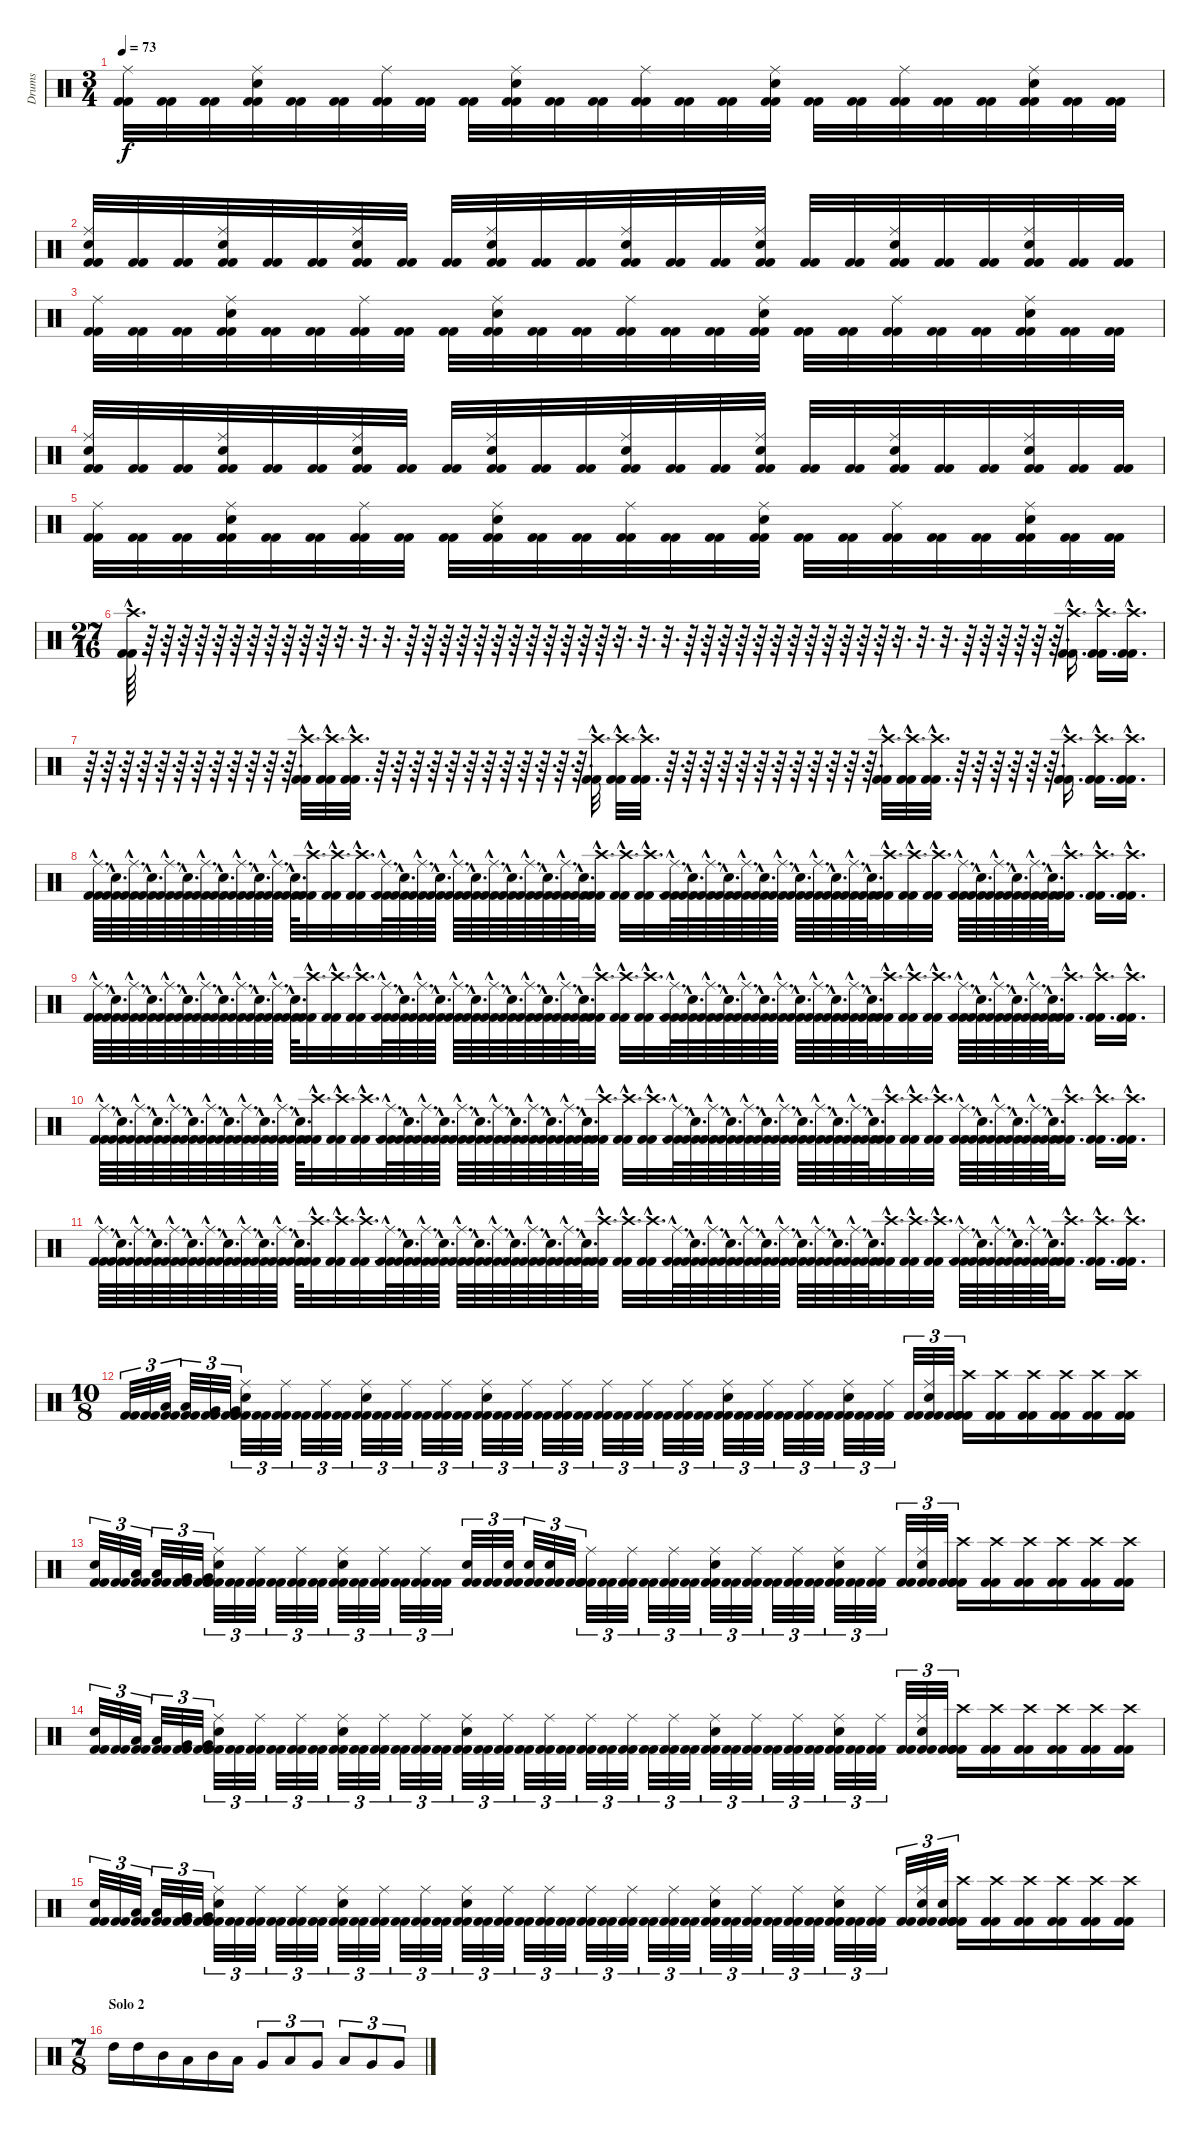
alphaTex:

\track ("Drums" "Drums") {instrument percussion}
\staff {score}
\articulation defaults
\ts (3 4)
\tempo 73
\clef neutral
\ks c
("Kick (hit) 2" "Kick (hit) 2" "Ride (middle)").32{dy f} ("Kick (hit) 2" "Kick (hit) 2").32 ("Kick (hit) 2" "Kick (hit) 2").32 ("Kick (hit) 2" "Kick (hit) 2" "Electric Snare (hit)" "Ride (middle)").32 ("Kick (hit) 2" "Kick (hit) 2").32 ("Kick (hit) 2" "Kick (hit) 2").32 ("Kick (hit) 2" "Kick (hit) 2" "Ride (middle)").32 ("Kick (hit) 2" "Kick (hit) 2").32 ("Kick (hit) 2" "Kick (hit) 2").32 ("Kick (hit) 2" "Kick (hit) 2" "Electric Snare (hit)" "Ride (middle)").32 ("Kick (hit) 2" "Kick (hit) 2").32 ("Kick (hit) 2" "Kick (hit) 2").32 ("Kick (hit) 2" "Kick (hit) 2" "Ride (middle)").32 ("Kick (hit) 2" "Kick (hit) 2").32 ("Kick (hit) 2" "Kick (hit) 2").32 ("Kick (hit) 2" "Kick (hit) 2" "Electric Snare (hit)" "Ride (middle)").32 ("Kick (hit) 2" "Kick (hit) 2").32 ("Kick (hit) 2" "Kick (hit) 2").32 ("Kick (hit) 2" "Kick (hit) 2" "Ride (middle)").32 ("Kick (hit) 2" "Kick (hit) 2").32 ("Kick (hit) 2" "Kick (hit) 2").32 ("Kick (hit) 2" "Kick (hit) 2" "Electric Snare (hit)" "Ride (middle)").32 ("Kick (hit) 2" "Kick (hit) 2").32 ("Kick (hit) 2" "Kick (hit) 2").32 |
("Kick (hit) 2" "Kick (hit) 2" "Electric Snare (hit)" "Ride (middle)").32 ("Kick (hit) 2" "Kick (hit) 2").32 ("Kick (hit) 2" "Kick (hit) 2").32 ("Kick (hit) 2" "Kick (hit) 2" "Electric Snare (hit)" "Ride (middle)").32 ("Kick (hit) 2" "Kick (hit) 2").32 ("Kick (hit) 2" "Kick (hit) 2").32 ("Kick (hit) 2" "Kick (hit) 2" "Electric Snare (hit)" "Ride (middle)").32 ("Kick (hit) 2" "Kick (hit) 2").32 ("Kick (hit) 2" "Kick (hit) 2").32 ("Kick (hit) 2" "Kick (hit) 2" "Electric Snare (hit)" "Ride (middle)").32 ("Kick (hit) 2" "Kick (hit) 2").32 ("Kick (hit) 2" "Kick (hit) 2").32 ("Kick (hit) 2" "Kick (hit) 2" "Electric Snare (hit)" "Ride (middle)").32 ("Kick (hit) 2" "Kick (hit) 2").32 ("Kick (hit) 2" "Kick (hit) 2").32 ("Kick (hit) 2" "Kick (hit) 2" "Electric Snare (hit)" "Ride (middle)").32 ("Kick (hit) 2" "Kick (hit) 2").32 ("Kick (hit) 2" "Kick (hit) 2").32 ("Kick (hit) 2" "Kick (hit) 2" "Electric Snare (hit)" "Ride (middle)").32 ("Kick (hit) 2" "Kick (hit) 2").32 ("Kick (hit) 2" "Kick (hit) 2").32 ("Kick (hit) 2" "Kick (hit) 2" "Electric Snare (hit)" "Ride (middle)").32 ("Kick (hit) 2" "Kick (hit) 2").32 ("Kick (hit) 2" "Kick (hit) 2").32 |
("Kick (hit) 2" "Kick (hit) 2" "Ride (middle)").32 ("Kick (hit) 2" "Kick (hit) 2").32 ("Kick (hit) 2" "Kick (hit) 2").32 ("Kick (hit) 2" "Kick (hit) 2" "Electric Snare (hit)" "Ride (middle)").32 ("Kick (hit) 2" "Kick (hit) 2").32 ("Kick (hit) 2" "Kick (hit) 2").32 ("Kick (hit) 2" "Kick (hit) 2" "Ride (middle)").32 ("Kick (hit) 2" "Kick (hit) 2").32 ("Kick (hit) 2" "Kick (hit) 2").32 ("Kick (hit) 2" "Kick (hit) 2" "Electric Snare (hit)" "Ride (middle)").32 ("Kick (hit) 2" "Kick (hit) 2").32 ("Kick (hit) 2" "Kick (hit) 2").32 ("Kick (hit) 2" "Kick (hit) 2" "Ride (middle)").32 ("Kick (hit) 2" "Kick (hit) 2").32 ("Kick (hit) 2" "Kick (hit) 2").32 ("Kick (hit) 2" "Kick (hit) 2" "Electric Snare (hit)" "Ride (middle)").32 ("Kick (hit) 2" "Kick (hit) 2").32 ("Kick (hit) 2" "Kick (hit) 2").32 ("Kick (hit) 2" "Kick (hit) 2" "Ride (middle)").32 ("Kick (hit) 2" "Kick (hit) 2").32 ("Kick (hit) 2" "Kick (hit) 2").32 ("Kick (hit) 2" "Kick (hit) 2" "Electric Snare (hit)" "Ride (middle)").32 ("Kick (hit) 2" "Kick (hit) 2").32 ("Kick (hit) 2" "Kick (hit) 2").32 |
("Kick (hit) 2" "Kick (hit) 2" "Electric Snare (hit)" "Ride (middle)").32 ("Kick (hit) 2" "Kick (hit) 2").32 ("Kick (hit) 2" "Kick (hit) 2").32 ("Kick (hit) 2" "Kick (hit) 2" "Electric Snare (hit)" "Ride (middle)").32 ("Kick (hit) 2" "Kick (hit) 2").32 ("Kick (hit) 2" "Kick (hit) 2").32 ("Kick (hit) 2" "Kick (hit) 2" "Electric Snare (hit)" "Ride (middle)").32 ("Kick (hit) 2" "Kick (hit) 2").32 ("Kick (hit) 2" "Kick (hit) 2").32 ("Kick (hit) 2" "Kick (hit) 2" "Electric Snare (hit)" "Ride (middle)").32 ("Kick (hit) 2" "Kick (hit) 2").32 ("Kick (hit) 2" "Kick (hit) 2").32 ("Kick (hit) 2" "Kick (hit) 2" "Electric Snare (hit)" "Ride (middle)").32 ("Kick (hit) 2" "Kick (hit) 2").32 ("Kick (hit) 2" "Kick (hit) 2").32 ("Kick (hit) 2" "Kick (hit) 2" "Electric Snare (hit)" "Ride (middle)").32 ("Kick (hit) 2" "Kick (hit) 2").32 ("Kick (hit) 2" "Kick (hit) 2").32 ("Kick (hit) 2" "Kick (hit) 2" "Electric Snare (hit)" "Ride (middle)").32 ("Kick (hit) 2" "Kick (hit) 2").32 ("Kick (hit) 2" "Kick (hit) 2").32 ("Kick (hit) 2" "Kick (hit) 2" "Electric Snare (hit)" "Ride (middle)").32 ("Kick (hit) 2" "Kick (hit) 2").32 ("Kick (hit) 2" "Kick (hit) 2").32 |
("Kick (hit) 2" "Kick (hit) 2" "Ride (middle)").32 ("Kick (hit) 2" "Kick (hit) 2").32 ("Kick (hit) 2" "Kick (hit) 2").32 ("Kick (hit) 2" "Kick (hit) 2" "Electric Snare (hit)" "Ride (middle)").32 ("Kick (hit) 2" "Kick (hit) 2").32 ("Kick (hit) 2" "Kick (hit) 2").32 ("Kick (hit) 2" "Kick (hit) 2" "Ride (middle)").32 ("Kick (hit) 2" "Kick (hit) 2").32 ("Kick (hit) 2" "Kick (hit) 2").32 ("Kick (hit) 2" "Kick (hit) 2" "Electric Snare (hit)" "Ride (middle)").32 ("Kick (hit) 2" "Kick (hit) 2").32 ("Kick (hit) 2" "Kick (hit) 2").32 ("Kick (hit) 2" "Kick (hit) 2" "Ride (middle)").32 ("Kick (hit) 2" "Kick (hit) 2").32 ("Kick (hit) 2" "Kick (hit) 2").32 ("Kick (hit) 2" "Kick (hit) 2" "Electric Snare (hit)" "Ride (middle)").32 ("Kick (hit) 2" "Kick (hit) 2").32 ("Kick (hit) 2" "Kick (hit) 2").32 ("Kick (hit) 2" "Kick (hit) 2" "Ride (middle)").32 ("Kick (hit) 2" "Kick (hit) 2").32 ("Kick (hit) 2" "Kick (hit) 2").32 ("Kick (hit) 2" "Kick (hit) 2" "Electric Snare (hit)" "Ride (middle)").32 ("Kick (hit) 2" "Kick (hit) 2").32 ("Kick (hit) 2" "Kick (hit) 2").32 |
\ts (27 16)
("Kick (hit) 2"{hac} "Kick (hit) 2"{hac} "Crash high (hit)"{hac}).64{d} r.64{d} r.64{d} r.64{d} r.64{d} r.64{d} r.64{d} r.64{d} r.64{d} r.64{d} r.64{d} r.64{d} r.32{d} r.32{d} r.32{d} r.64{d} r.64{d} r.64{d} r.64{d} r.64{d} r.64{d} r.64{d} r.64{d} r.64{d} r.64{d} r.64{d} r.64{d} r.32{d} r.32{d} r.32{d} r.64{d} r.64{d} r.64{d} r.64{d} r.64{d} r.64{d} r.64{d} r.64{d} r.64{d} r.64{d} r.64{d} r.64{d} r.32{d} r.32{d} r.32{d} r.64{d} r.64{d} r.64{d} r.64{d} r.64{d} r.64{d} ("Kick (hit) 2"{hac} "Kick (hit) 2"{hac} "Crash high (hit)"{hac}).16{d} ("Kick (hit) 2"{hac} "Kick (hit) 2"{hac} "Crash high (hit)"{hac}).16{d} ("Kick (hit) 2"{hac} "Kick (hit) 2"{hac} "Crash high (hit)"{hac}).16{d} |
r.64{d} r.64{d} r.64{d} r.64{d} r.64{d} r.64{d} r.64{d} r.64{d} r.64{d} r.64{d} r.64{d} r.64{d} ("Kick (hit) 2"{hac} "Kick (hit) 2"{hac} "Crash high (hit)"{hac}).32{d} ("Kick (hit) 2"{hac} "Kick (hit) 2"{hac} "Crash high (hit)"{hac}).32{d} ("Kick (hit) 2"{hac} "Kick (hit) 2"{hac} "Crash high (hit)"{hac}).32{d} r.64{d} r.64{d} r.64{d} r.64{d} r.64{d} r.64{d} r.64{d} r.64{d} r.64{d} r.64{d} r.64{d} r.64{d} ("Kick (hit) 2"{hac} "Kick (hit) 2"{hac} "Crash high (hit)"{hac}).32{d} ("Kick (hit) 2"{hac} "Kick (hit) 2"{hac} "Crash high (hit)"{hac}).32{d} ("Kick (hit) 2"{hac} "Kick (hit) 2"{hac} "Crash high (hit)"{hac}).32{d} r.64{d} r.64{d} r.64{d} r.64{d} r.64{d} r.64{d} r.64{d} r.64{d} r.64{d} r.64{d} r.64{d} r.64{d} ("Kick (hit) 2"{hac} "Kick (hit) 2"{hac} "Crash high (hit)"{hac}).32{d} ("Kick (hit) 2"{hac} "Kick (hit) 2"{hac} "Crash high (hit)"{hac}).32{d} ("Kick (hit) 2"{hac} "Kick (hit) 2"{hac} "Crash high (hit)"{hac}).32{d} r.64{d} r.64{d} r.64{d} r.64{d} r.64{d} r.64{d} ("Kick (hit) 2"{hac} "Kick (hit) 2"{hac} "Crash high (hit)"{hac}).16{d} ("Kick (hit) 2"{hac} "Kick (hit) 2"{hac} "Crash high (hit)"{hac}).16{d} ("Kick (hit) 2"{hac} "Kick (hit) 2"{hac} "Crash high (hit)"{hac}).16{d} |
("Kick (hit) 2"{hac} "Kick (hit) 2"{hac} "Ride (middle)"{hac}).64{d} ("Kick (hit) 2"{hac} "Kick (hit) 2"{hac} "Electric Snare (hit)"{hac}).64{d} ("Kick (hit) 2"{hac} "Kick (hit) 2"{hac} "Ride (middle)"{hac}).64{d} ("Kick (hit) 2"{hac} "Kick (hit) 2"{hac} "Electric Snare (hit)"{hac}).64{d} ("Kick (hit) 2"{hac} "Kick (hit) 2"{hac} "Ride (middle)"{hac}).64{d} ("Kick (hit) 2"{hac} "Kick (hit) 2"{hac} "Electric Snare (hit)"{hac}).64{d} ("Kick (hit) 2"{hac} "Kick (hit) 2"{hac} "Ride (middle)"{hac}).64{d} ("Kick (hit) 2"{hac} "Kick (hit) 2"{hac} "Electric Snare (hit)"{hac}).64{d} ("Kick (hit) 2"{hac} "Kick (hit) 2"{hac} "Ride (middle)"{hac}).64{d} ("Kick (hit) 2"{hac} "Kick (hit) 2"{hac} "Electric Snare (hit)"{hac}).64{d} ("Kick (hit) 2"{hac} "Kick (hit) 2"{hac} "Ride (middle)"{hac}).64{d} ("Kick (hit) 2"{hac} "Kick (hit) 2"{hac} "Electric Snare (hit)"{hac}).64{d} ("Kick (hit) 2"{hac} "Kick (hit) 2"{hac} "Crash high (hit)"{hac}).32{d} ("Kick (hit) 2"{hac} "Kick (hit) 2"{hac} "Crash high (hit)"{hac}).32{d} ("Kick (hit) 2"{hac} "Kick (hit) 2"{hac} "Crash high (hit)"{hac}).32{d} ("Kick (hit) 2"{hac} "Kick (hit) 2"{hac} "Ride (middle)"{hac}).64{d} ("Kick (hit) 2"{hac} "Kick (hit) 2"{hac} "Electric Snare (hit)"{hac}).64{d} ("Kick (hit) 2"{hac} "Kick (hit) 2"{hac} "Ride (middle)"{hac}).64{d} ("Kick (hit) 2"{hac} "Kick (hit) 2"{hac} "Electric Snare (hit)"{hac}).64{d} ("Kick (hit) 2"{hac} "Kick (hit) 2"{hac} "Ride (middle)"{hac}).64{d} ("Kick (hit) 2"{hac} "Kick (hit) 2"{hac} "Electric Snare (hit)"{hac}).64{d} ("Kick (hit) 2"{hac} "Kick (hit) 2"{hac} "Ride (middle)"{hac}).64{d} ("Kick (hit) 2"{hac} "Kick (hit) 2"{hac} "Electric Snare (hit)"{hac}).64{d} ("Kick (hit) 2"{hac} "Kick (hit) 2"{hac} "Ride (middle)"{hac}).64{d} ("Kick (hit) 2"{hac} "Kick (hit) 2"{hac} "Electric Snare (hit)"{hac}).64{d} ("Kick (hit) 2"{hac} "Kick (hit) 2"{hac} "Ride (middle)"{hac}).64{d} ("Kick (hit) 2"{hac} "Kick (hit) 2"{hac} "Electric Snare (hit)"{hac}).64{d} ("Kick (hit) 2"{hac} "Kick (hit) 2"{hac} "Crash high (hit)"{hac}).32{d} ("Kick (hit) 2"{hac} "Kick (hit) 2"{hac} "Crash high (hit)"{hac}).32{d} ("Kick (hit) 2"{hac} "Kick (hit) 2"{hac} "Crash high (hit)"{hac}).32{d} ("Kick (hit) 2"{hac} "Kick (hit) 2"{hac} "Ride (middle)"{hac}).64{d} ("Kick (hit) 2"{hac} "Kick (hit) 2"{hac} "Electric Snare (hit)"{hac}).64{d} ("Kick (hit) 2"{hac} "Kick (hit) 2"{hac} "Ride (middle)"{hac}).64{d} ("Kick (hit) 2"{hac} "Kick (hit) 2"{hac} "Electric Snare (hit)"{hac}).64{d} ("Kick (hit) 2"{hac} "Kick (hit) 2"{hac} "Ride (middle)"{hac}).64{d} ("Kick (hit) 2"{hac} "Kick (hit) 2"{hac} "Electric Snare (hit)"{hac}).64{d} ("Kick (hit) 2"{hac} "Kick (hit) 2"{hac} "Ride (middle)"{hac}).64{d} ("Kick (hit) 2"{hac} "Kick (hit) 2"{hac} "Electric Snare (hit)"{hac}).64{d} ("Kick (hit) 2"{hac} "Kick (hit) 2"{hac} "Ride (middle)"{hac}).64{d} ("Kick (hit) 2"{hac} "Kick (hit) 2"{hac} "Electric Snare (hit)"{hac}).64{d} ("Kick (hit) 2"{hac} "Kick (hit) 2"{hac} "Ride (middle)"{hac}).64{d} ("Kick (hit) 2"{hac} "Kick (hit) 2"{hac} "Electric Snare (hit)"{hac}).64{d} ("Kick (hit) 2"{hac} "Kick (hit) 2"{hac} "Crash high (hit)"{hac}).32{d} ("Kick (hit) 2"{hac} "Kick (hit) 2"{hac} "Crash high (hit)"{hac}).32{d} ("Kick (hit) 2"{hac} "Kick (hit) 2"{hac} "Crash high (hit)"{hac}).32{d} ("Kick (hit) 2"{hac} "Kick (hit) 2"{hac} "Ride (middle)"{hac}).64{d} ("Kick (hit) 2"{hac} "Kick (hit) 2"{hac} "Electric Snare (hit)"{hac}).64{d} ("Kick (hit) 2"{hac} "Kick (hit) 2"{hac} "Ride (middle)"{hac}).64{d} ("Kick (hit) 2"{hac} "Kick (hit) 2"{hac} "Electric Snare (hit)"{hac}).64{d} ("Kick (hit) 2"{hac} "Kick (hit) 2"{hac} "Ride (middle)"{hac}).64{d} ("Kick (hit) 2"{hac} "Kick (hit) 2"{hac} "Electric Snare (hit)"{hac}).64{d} ("Kick (hit) 2"{hac} "Kick (hit) 2"{hac} "Crash high (hit)"{hac}).16{d} ("Kick (hit) 2"{hac} "Kick (hit) 2"{hac} "Crash high (hit)"{hac}).16{d} ("Kick (hit) 2"{hac} "Kick (hit) 2"{hac} "Crash high (hit)"{hac}).16{d} |
("Kick (hit) 2"{hac} "Kick (hit) 2"{hac} "Ride (middle)"{hac}).64{d} ("Kick (hit) 2"{hac} "Kick (hit) 2"{hac} "Electric Snare (hit)"{hac}).64{d} ("Kick (hit) 2"{hac} "Kick (hit) 2"{hac} "Ride (middle)"{hac}).64{d} ("Kick (hit) 2"{hac} "Kick (hit) 2"{hac} "Electric Snare (hit)"{hac}).64{d} ("Kick (hit) 2"{hac} "Kick (hit) 2"{hac} "Ride (middle)"{hac}).64{d} ("Kick (hit) 2"{hac} "Kick (hit) 2"{hac} "Electric Snare (hit)"{hac}).64{d} ("Kick (hit) 2"{hac} "Kick (hit) 2"{hac} "Ride (middle)"{hac}).64{d} ("Kick (hit) 2"{hac} "Kick (hit) 2"{hac} "Electric Snare (hit)"{hac}).64{d} ("Kick (hit) 2"{hac} "Kick (hit) 2"{hac} "Ride (middle)"{hac}).64{d} ("Kick (hit) 2"{hac} "Kick (hit) 2"{hac} "Electric Snare (hit)"{hac}).64{d} ("Kick (hit) 2"{hac} "Kick (hit) 2"{hac} "Ride (middle)"{hac}).64{d} ("Kick (hit) 2"{hac} "Kick (hit) 2"{hac} "Electric Snare (hit)"{hac}).64{d} ("Kick (hit) 2"{hac} "Kick (hit) 2"{hac} "Crash high (hit)"{hac}).32{d} ("Kick (hit) 2"{hac} "Kick (hit) 2"{hac} "Crash high (hit)"{hac}).32{d} ("Kick (hit) 2"{hac} "Kick (hit) 2"{hac} "Crash high (hit)"{hac}).32{d} ("Kick (hit) 2"{hac} "Kick (hit) 2"{hac} "Ride (middle)"{hac}).64{d} ("Kick (hit) 2"{hac} "Kick (hit) 2"{hac} "Electric Snare (hit)"{hac}).64{d} ("Kick (hit) 2"{hac} "Kick (hit) 2"{hac} "Ride (middle)"{hac}).64{d} ("Kick (hit) 2"{hac} "Kick (hit) 2"{hac} "Electric Snare (hit)"{hac}).64{d} ("Kick (hit) 2"{hac} "Kick (hit) 2"{hac} "Ride (middle)"{hac}).64{d} ("Kick (hit) 2"{hac} "Kick (hit) 2"{hac} "Electric Snare (hit)"{hac}).64{d} ("Kick (hit) 2"{hac} "Kick (hit) 2"{hac} "Ride (middle)"{hac}).64{d} ("Kick (hit) 2"{hac} "Kick (hit) 2"{hac} "Electric Snare (hit)"{hac}).64{d} ("Kick (hit) 2"{hac} "Kick (hit) 2"{hac} "Ride (middle)"{hac}).64{d} ("Kick (hit) 2"{hac} "Kick (hit) 2"{hac} "Electric Snare (hit)"{hac}).64{d} ("Kick (hit) 2"{hac} "Kick (hit) 2"{hac} "Ride (middle)"{hac}).64{d} ("Kick (hit) 2"{hac} "Kick (hit) 2"{hac} "Electric Snare (hit)"{hac}).64{d} ("Kick (hit) 2"{hac} "Kick (hit) 2"{hac} "Crash high (hit)"{hac}).32{d} ("Kick (hit) 2"{hac} "Kick (hit) 2"{hac} "Crash high (hit)"{hac}).32{d} ("Kick (hit) 2"{hac} "Kick (hit) 2"{hac} "Crash high (hit)"{hac}).32{d} ("Kick (hit) 2"{hac} "Kick (hit) 2"{hac} "Ride (middle)"{hac}).64{d} ("Kick (hit) 2"{hac} "Kick (hit) 2"{hac} "Electric Snare (hit)"{hac}).64{d} ("Kick (hit) 2"{hac} "Kick (hit) 2"{hac} "Ride (middle)"{hac}).64{d} ("Kick (hit) 2"{hac} "Kick (hit) 2"{hac} "Electric Snare (hit)"{hac}).64{d} ("Kick (hit) 2"{hac} "Kick (hit) 2"{hac} "Ride (middle)"{hac}).64{d} ("Kick (hit) 2"{hac} "Kick (hit) 2"{hac} "Electric Snare (hit)"{hac}).64{d} ("Kick (hit) 2"{hac} "Kick (hit) 2"{hac} "Ride (middle)"{hac}).64{d} ("Kick (hit) 2"{hac} "Kick (hit) 2"{hac} "Electric Snare (hit)"{hac}).64{d} ("Kick (hit) 2"{hac} "Kick (hit) 2"{hac} "Ride (middle)"{hac}).64{d} ("Kick (hit) 2"{hac} "Kick (hit) 2"{hac} "Electric Snare (hit)"{hac}).64{d} ("Kick (hit) 2"{hac} "Kick (hit) 2"{hac} "Ride (middle)"{hac}).64{d} ("Kick (hit) 2"{hac} "Kick (hit) 2"{hac} "Electric Snare (hit)"{hac}).64{d} ("Kick (hit) 2"{hac} "Kick (hit) 2"{hac} "Crash high (hit)"{hac}).32{d} ("Kick (hit) 2"{hac} "Kick (hit) 2"{hac} "Crash high (hit)"{hac}).32{d} ("Kick (hit) 2"{hac} "Kick (hit) 2"{hac} "Crash high (hit)"{hac}).32{d} ("Kick (hit) 2"{hac} "Kick (hit) 2"{hac} "Ride (middle)"{hac}).64{d} ("Kick (hit) 2"{hac} "Kick (hit) 2"{hac} "Electric Snare (hit)"{hac}).64{d} ("Kick (hit) 2"{hac} "Kick (hit) 2"{hac} "Ride (middle)"{hac}).64{d} ("Kick (hit) 2"{hac} "Kick (hit) 2"{hac} "Electric Snare (hit)"{hac}).64{d} ("Kick (hit) 2"{hac} "Kick (hit) 2"{hac} "Ride (middle)"{hac}).64{d} ("Kick (hit) 2"{hac} "Kick (hit) 2"{hac} "Electric Snare (hit)"{hac}).64{d} ("Kick (hit) 2"{hac} "Kick (hit) 2"{hac} "Crash high (hit)"{hac}).16{d} ("Kick (hit) 2"{hac} "Kick (hit) 2"{hac} "Crash high (hit)"{hac}).16{d} ("Kick (hit) 2"{hac} "Kick (hit) 2"{hac} "Crash high (hit)"{hac}).16{d} |
("Kick (hit) 2"{hac} "Kick (hit) 2"{hac} "Ride (middle)"{hac}).64{d} ("Kick (hit) 2"{hac} "Kick (hit) 2"{hac} "Electric Snare (hit)"{hac}).64{d} ("Kick (hit) 2"{hac} "Kick (hit) 2"{hac} "Ride (middle)"{hac}).64{d} ("Kick (hit) 2"{hac} "Kick (hit) 2"{hac} "Electric Snare (hit)"{hac}).64{d} ("Kick (hit) 2"{hac} "Kick (hit) 2"{hac} "Ride (middle)"{hac}).64{d} ("Kick (hit) 2"{hac} "Kick (hit) 2"{hac} "Electric Snare (hit)"{hac}).64{d} ("Kick (hit) 2"{hac} "Kick (hit) 2"{hac} "Ride (middle)"{hac}).64{d} ("Kick (hit) 2"{hac} "Kick (hit) 2"{hac} "Electric Snare (hit)"{hac}).64{d} ("Kick (hit) 2"{hac} "Kick (hit) 2"{hac} "Ride (middle)"{hac}).64{d} ("Kick (hit) 2"{hac} "Kick (hit) 2"{hac} "Electric Snare (hit)"{hac}).64{d} ("Kick (hit) 2"{hac} "Kick (hit) 2"{hac} "Ride (middle)"{hac}).64{d} ("Kick (hit) 2"{hac} "Kick (hit) 2"{hac} "Electric Snare (hit)"{hac}).64{d} ("Kick (hit) 2"{hac} "Kick (hit) 2"{hac} "Crash high (hit)"{hac}).32{d} ("Kick (hit) 2"{hac} "Kick (hit) 2"{hac} "Crash high (hit)"{hac}).32{d} ("Kick (hit) 2"{hac} "Kick (hit) 2"{hac} "Crash high (hit)"{hac}).32{d} ("Kick (hit) 2"{hac} "Kick (hit) 2"{hac} "Ride (middle)"{hac}).64{d} ("Kick (hit) 2"{hac} "Kick (hit) 2"{hac} "Electric Snare (hit)"{hac}).64{d} ("Kick (hit) 2"{hac} "Kick (hit) 2"{hac} "Ride (middle)"{hac}).64{d} ("Kick (hit) 2"{hac} "Kick (hit) 2"{hac} "Electric Snare (hit)"{hac}).64{d} ("Kick (hit) 2"{hac} "Kick (hit) 2"{hac} "Ride (middle)"{hac}).64{d} ("Kick (hit) 2"{hac} "Kick (hit) 2"{hac} "Electric Snare (hit)"{hac}).64{d} ("Kick (hit) 2"{hac} "Kick (hit) 2"{hac} "Ride (middle)"{hac}).64{d} ("Kick (hit) 2"{hac} "Kick (hit) 2"{hac} "Electric Snare (hit)"{hac}).64{d} ("Kick (hit) 2"{hac} "Kick (hit) 2"{hac} "Ride (middle)"{hac}).64{d} ("Kick (hit) 2"{hac} "Kick (hit) 2"{hac} "Electric Snare (hit)"{hac}).64{d} ("Kick (hit) 2"{hac} "Kick (hit) 2"{hac} "Ride (middle)"{hac}).64{d} ("Kick (hit) 2"{hac} "Kick (hit) 2"{hac} "Electric Snare (hit)"{hac}).64{d} ("Kick (hit) 2"{hac} "Kick (hit) 2"{hac} "Crash high (hit)"{hac}).32{d} ("Kick (hit) 2"{hac} "Kick (hit) 2"{hac} "Crash high (hit)"{hac}).32{d} ("Kick (hit) 2"{hac} "Kick (hit) 2"{hac} "Crash high (hit)"{hac}).32{d} ("Kick (hit) 2"{hac} "Kick (hit) 2"{hac} "Ride (middle)"{hac}).64{d} ("Kick (hit) 2"{hac} "Kick (hit) 2"{hac} "Electric Snare (hit)"{hac}).64{d} ("Kick (hit) 2"{hac} "Kick (hit) 2"{hac} "Ride (middle)"{hac}).64{d} ("Kick (hit) 2"{hac} "Kick (hit) 2"{hac} "Electric Snare (hit)"{hac}).64{d} ("Kick (hit) 2"{hac} "Kick (hit) 2"{hac} "Ride (middle)"{hac}).64{d} ("Kick (hit) 2"{hac} "Kick (hit) 2"{hac} "Electric Snare (hit)"{hac}).64{d} ("Kick (hit) 2"{hac} "Kick (hit) 2"{hac} "Ride (middle)"{hac}).64{d} ("Kick (hit) 2"{hac} "Kick (hit) 2"{hac} "Electric Snare (hit)"{hac}).64{d} ("Kick (hit) 2"{hac} "Kick (hit) 2"{hac} "Ride (middle)"{hac}).64{d} ("Kick (hit) 2"{hac} "Kick (hit) 2"{hac} "Electric Snare (hit)"{hac}).64{d} ("Kick (hit) 2"{hac} "Kick (hit) 2"{hac} "Ride (middle)"{hac}).64{d} ("Kick (hit) 2"{hac} "Kick (hit) 2"{hac} "Electric Snare (hit)"{hac}).64{d} ("Kick (hit) 2"{hac} "Kick (hit) 2"{hac} "Crash high (hit)"{hac}).32{d} ("Kick (hit) 2"{hac} "Kick (hit) 2"{hac} "Crash high (hit)"{hac}).32{d} ("Kick (hit) 2"{hac} "Kick (hit) 2"{hac} "Crash high (hit)"{hac}).32{d} ("Kick (hit) 2"{hac} "Kick (hit) 2"{hac} "Ride (middle)"{hac}).64{d} ("Kick (hit) 2"{hac} "Kick (hit) 2"{hac} "Electric Snare (hit)"{hac}).64{d} ("Kick (hit) 2"{hac} "Kick (hit) 2"{hac} "Ride (middle)"{hac}).64{d} ("Kick (hit) 2"{hac} "Kick (hit) 2"{hac} "Electric Snare (hit)"{hac}).64{d} ("Kick (hit) 2"{hac} "Kick (hit) 2"{hac} "Ride (middle)"{hac}).64{d} ("Kick (hit) 2"{hac} "Kick (hit) 2"{hac} "Electric Snare (hit)"{hac}).64{d} ("Kick (hit) 2"{hac} "Kick (hit) 2"{hac} "Crash high (hit)"{hac}).16{d} ("Kick (hit) 2"{hac} "Kick (hit) 2"{hac} "Crash high (hit)"{hac}).16{d} ("Kick (hit) 2"{hac} "Kick (hit) 2"{hac} "Crash high (hit)"{hac}).16{d} |
("Kick (hit) 2"{hac} "Kick (hit) 2"{hac} "Ride (middle)"{hac}).64{d} ("Kick (hit) 2"{hac} "Kick (hit) 2"{hac} "Electric Snare (hit)"{hac}).64{d} ("Kick (hit) 2"{hac} "Kick (hit) 2"{hac} "Ride (middle)"{hac}).64{d} ("Kick (hit) 2"{hac} "Kick (hit) 2"{hac} "Electric Snare (hit)"{hac}).64{d} ("Kick (hit) 2"{hac} "Kick (hit) 2"{hac} "Ride (middle)"{hac}).64{d} ("Kick (hit) 2"{hac} "Kick (hit) 2"{hac} "Electric Snare (hit)"{hac}).64{d} ("Kick (hit) 2"{hac} "Kick (hit) 2"{hac} "Ride (middle)"{hac}).64{d} ("Kick (hit) 2"{hac} "Kick (hit) 2"{hac} "Electric Snare (hit)"{hac}).64{d} ("Kick (hit) 2"{hac} "Kick (hit) 2"{hac} "Ride (middle)"{hac}).64{d} ("Kick (hit) 2"{hac} "Kick (hit) 2"{hac} "Electric Snare (hit)"{hac}).64{d} ("Kick (hit) 2"{hac} "Kick (hit) 2"{hac} "Ride (middle)"{hac}).64{d} ("Kick (hit) 2"{hac} "Kick (hit) 2"{hac} "Electric Snare (hit)"{hac}).64{d} ("Kick (hit) 2"{hac} "Kick (hit) 2"{hac} "Crash high (hit)"{hac}).32{d} ("Kick (hit) 2"{hac} "Kick (hit) 2"{hac} "Crash high (hit)"{hac}).32{d} ("Kick (hit) 2"{hac} "Kick (hit) 2"{hac} "Crash high (hit)"{hac}).32{d} ("Kick (hit) 2"{hac} "Kick (hit) 2"{hac} "Ride (middle)"{hac}).64{d} ("Kick (hit) 2"{hac} "Kick (hit) 2"{hac} "Electric Snare (hit)"{hac}).64{d} ("Kick (hit) 2"{hac} "Kick (hit) 2"{hac} "Ride (middle)"{hac}).64{d} ("Kick (hit) 2"{hac} "Kick (hit) 2"{hac} "Electric Snare (hit)"{hac}).64{d} ("Kick (hit) 2"{hac} "Kick (hit) 2"{hac} "Ride (middle)"{hac}).64{d} ("Kick (hit) 2"{hac} "Kick (hit) 2"{hac} "Electric Snare (hit)"{hac}).64{d} ("Kick (hit) 2"{hac} "Kick (hit) 2"{hac} "Ride (middle)"{hac}).64{d} ("Kick (hit) 2"{hac} "Kick (hit) 2"{hac} "Electric Snare (hit)"{hac}).64{d} ("Kick (hit) 2"{hac} "Kick (hit) 2"{hac} "Ride (middle)"{hac}).64{d} ("Kick (hit) 2"{hac} "Kick (hit) 2"{hac} "Electric Snare (hit)"{hac}).64{d} ("Kick (hit) 2"{hac} "Kick (hit) 2"{hac} "Ride (middle)"{hac}).64{d} ("Kick (hit) 2"{hac} "Kick (hit) 2"{hac} "Electric Snare (hit)"{hac}).64{d} ("Kick (hit) 2"{hac} "Kick (hit) 2"{hac} "Crash high (hit)"{hac}).32{d} ("Kick (hit) 2"{hac} "Kick (hit) 2"{hac} "Crash high (hit)"{hac}).32{d} ("Kick (hit) 2"{hac} "Kick (hit) 2"{hac} "Crash high (hit)"{hac}).32{d} ("Kick (hit) 2"{hac} "Kick (hit) 2"{hac} "Ride (middle)"{hac}).64{d} ("Kick (hit) 2"{hac} "Kick (hit) 2"{hac} "Electric Snare (hit)"{hac}).64{d} ("Kick (hit) 2"{hac} "Kick (hit) 2"{hac} "Ride (middle)"{hac}).64{d} ("Kick (hit) 2"{hac} "Kick (hit) 2"{hac} "Electric Snare (hit)"{hac}).64{d} ("Kick (hit) 2"{hac} "Kick (hit) 2"{hac} "Ride (middle)"{hac}).64{d} ("Kick (hit) 2"{hac} "Kick (hit) 2"{hac} "Electric Snare (hit)"{hac}).64{d} ("Kick (hit) 2"{hac} "Kick (hit) 2"{hac} "Ride (middle)"{hac}).64{d} ("Kick (hit) 2"{hac} "Kick (hit) 2"{hac} "Electric Snare (hit)"{hac}).64{d} ("Kick (hit) 2"{hac} "Kick (hit) 2"{hac} "Ride (middle)"{hac}).64{d} ("Kick (hit) 2"{hac} "Kick (hit) 2"{hac} "Electric Snare (hit)"{hac}).64{d} ("Kick (hit) 2"{hac} "Kick (hit) 2"{hac} "Ride (middle)"{hac}).64{d} ("Kick (hit) 2"{hac} "Kick (hit) 2"{hac} "Electric Snare (hit)"{hac}).64{d} ("Kick (hit) 2"{hac} "Kick (hit) 2"{hac} "Crash high (hit)"{hac}).32{d} ("Kick (hit) 2"{hac} "Kick (hit) 2"{hac} "Crash high (hit)"{hac}).32{d} ("Kick (hit) 2"{hac} "Kick (hit) 2"{hac} "Crash high (hit)"{hac}).32{d} ("Kick (hit) 2"{hac} "Kick (hit) 2"{hac} "Ride (middle)"{hac}).64{d} ("Kick (hit) 2"{hac} "Kick (hit) 2"{hac} "Electric Snare (hit)"{hac}).64{d} ("Kick (hit) 2"{hac} "Kick (hit) 2"{hac} "Ride (middle)"{hac}).64{d} ("Kick (hit) 2"{hac} "Kick (hit) 2"{hac} "Electric Snare (hit)"{hac}).64{d} ("Kick (hit) 2"{hac} "Kick (hit) 2"{hac} "Ride (middle)"{hac}).64{d} ("Kick (hit) 2"{hac} "Kick (hit) 2"{hac} "Electric Snare (hit)"{hac}).64{d} ("Kick (hit) 2"{hac} "Kick (hit) 2"{hac} "Crash high (hit)"{hac}).16{d} ("Kick (hit) 2"{hac} "Kick (hit) 2"{hac} "Crash high (hit)"{hac}).16{d} ("Kick (hit) 2"{hac} "Kick (hit) 2"{hac} "Crash high (hit)"{hac}).16{d} |
\ts (10 8)
("Kick (hit) 2" "Kick (hit) 2").32{tu (3 2)} ("Kick (hit) 2" "Kick (hit) 2").32{tu (3 2)} ("Kick (hit) 2" "Kick (hit) 2" "Low Tom (hit)").32{tu (3 2)} ("Kick (hit) 2" "Kick (hit) 2" "Low Tom (hit)").32{tu (3 2)} ("Kick (hit) 2" "Kick (hit) 2" "Very Low Tom (hit)").32{tu (3 2)} ("Kick (hit) 2" "Kick (hit) 2" "Very Low Tom (hit)").32{tu (3 2)} ("Kick (hit) 2" "Kick (hit) 2" "Electric Snare (hit)" "Ride (middle)").32{tu (3 2)} ("Kick (hit) 2" "Kick (hit) 2").32{tu (3 2)} ("Kick (hit) 2" "Kick (hit) 2" "Ride (middle)").32{tu (3 2)} ("Kick (hit) 2" "Kick (hit) 2").32{tu (3 2)} ("Kick (hit) 2" "Kick (hit) 2" "Ride (middle)").32{tu (3 2)} ("Kick (hit) 2" "Kick (hit) 2").32{tu (3 2)} ("Kick (hit) 2" "Kick (hit) 2" "Electric Snare (hit)" "Ride (middle)").32{tu (3 2)} ("Kick (hit) 2" "Kick (hit) 2").32{tu (3 2)} ("Kick (hit) 2" "Kick (hit) 2" "Ride (middle)").32{tu (3 2)} ("Kick (hit) 2" "Kick (hit) 2").32{tu (3 2)} ("Kick (hit) 2" "Kick (hit) 2" "Ride (middle)").32{tu (3 2)} ("Kick (hit) 2" "Kick (hit) 2").32{tu (3 2)} ("Kick (hit) 2" "Kick (hit) 2" "Electric Snare (hit)" "Ride (middle)").32{tu (3 2)} ("Kick (hit) 2" "Kick (hit) 2").32{tu (3 2)} ("Kick (hit) 2" "Kick (hit) 2" "Ride (middle)").32{tu (3 2)} ("Kick (hit) 2" "Kick (hit) 2").32{tu (3 2)} ("Kick (hit) 2" "Kick (hit) 2" "Ride (middle)").32{tu (3 2)} ("Kick (hit) 2" "Kick (hit) 2").32{tu (3 2)} ("Kick (hit) 2" "Kick (hit) 2" "Ride (middle)").32{tu (3 2)} ("Kick (hit) 2" "Kick (hit) 2").32{tu (3 2)} ("Kick (hit) 2" "Kick (hit) 2" "Ride (middle)").32{tu (3 2)} ("Kick (hit) 2" "Kick (hit) 2").32{tu (3 2)} ("Kick (hit) 2" "Kick (hit) 2" "Ride (middle)").32{tu (3 2)} ("Kick (hit) 2" "Kick (hit) 2").32{tu (3 2)} ("Kick (hit) 2" "Kick (hit) 2" "Electric Snare (hit)" "Ride (middle)").32{tu (3 2)} ("Kick (hit) 2" "Kick (hit) 2").32{tu (3 2)} ("Kick (hit) 2" "Kick (hit) 2" "Ride (middle)").32{tu (3 2)} ("Kick (hit) 2" "Kick (hit) 2").32{tu (3 2)} ("Kick (hit) 2" "Kick (hit) 2" "Ride (middle)").32{tu (3 2)} ("Kick (hit) 2" "Kick (hit) 2").32{tu (3 2)} ("Kick (hit) 2" "Kick (hit) 2" "Electric Snare (hit)" "Ride (middle)").32{tu (3 2)} ("Kick (hit) 2" "Kick (hit) 2").32{tu (3 2)} ("Kick (hit) 2" "Kick (hit) 2" "Ride (middle)").32{tu (3 2)} ("Kick (hit) 2" "Kick (hit) 2").32{tu (3 2)} ("Kick (hit) 2" "Kick (hit) 2" "Electric Snare (hit)" "Ride (middle)").32{tu (3 2)} ("Kick (hit) 2" "Kick (hit) 2").32{tu (3 2)} ("Kick (hit) 2" "Kick (hit) 2" "Crash high (hit)").16 ("Kick (hit) 2" "Kick (hit) 2" "Crash high (hit)").16 ("Kick (hit) 2" "Kick (hit) 2" "Crash high (hit)").16 ("Kick (hit) 2" "Kick (hit) 2" "Crash high (hit)").16 ("Kick (hit) 2" "Kick (hit) 2" "Crash high (hit)").16 ("Kick (hit) 2" "Kick (hit) 2" "Crash high (hit)").16 |
("Kick (hit) 2" "Kick (hit) 2" "Electric Snare (hit)").32{tu (3 2)} ("Kick (hit) 2" "Kick (hit) 2").32{tu (3 2)} ("Kick (hit) 2" "Kick (hit) 2" "Low Tom (hit)").32{tu (3 2)} ("Kick (hit) 2" "Kick (hit) 2" "Low Tom (hit)").32{tu (3 2)} ("Kick (hit) 2" "Kick (hit) 2" "Very Low Tom (hit)").32{tu (3 2)} ("Kick (hit) 2" "Kick (hit) 2" "Very Low Tom (hit)").32{tu (3 2)} ("Kick (hit) 2" "Kick (hit) 2" "Electric Snare (hit)" "Ride (middle)").32{tu (3 2)} ("Kick (hit) 2" "Kick (hit) 2").32{tu (3 2)} ("Kick (hit) 2" "Kick (hit) 2" "Ride (middle)").32{tu (3 2)} ("Kick (hit) 2" "Kick (hit) 2").32{tu (3 2)} ("Kick (hit) 2" "Kick (hit) 2" "Ride (middle)").32{tu (3 2)} ("Kick (hit) 2" "Kick (hit) 2").32{tu (3 2)} ("Kick (hit) 2" "Kick (hit) 2" "Electric Snare (hit)" "Ride (middle)").32{tu (3 2)} ("Kick (hit) 2" "Kick (hit) 2").32{tu (3 2)} ("Kick (hit) 2" "Kick (hit) 2" "Ride (middle)").32{tu (3 2)} ("Kick (hit) 2" "Kick (hit) 2").32{tu (3 2)} ("Kick (hit) 2" "Kick (hit) 2" "Ride (middle)").32{tu (3 2)} ("Kick (hit) 2" "Kick (hit) 2").32{tu (3 2)} ("Kick (hit) 2" "Kick (hit) 2" "Electric Snare (hit)").32{tu (3 2)} ("Kick (hit) 2" "Kick (hit) 2").32{tu (3 2)} ("Kick (hit) 2" "Kick (hit) 2" "Electric Snare (hit)").32{tu (3 2)} ("Kick (hit) 2" "Kick (hit) 2" "Electric Snare (hit)").32{tu (3 2)} ("Kick (hit) 2" "Kick (hit) 2" "Electric Snare (hit)").32{tu (3 2)} ("Kick (hit) 2" "Kick (hit) 2").32{tu (3 2)} ("Kick (hit) 2" "Kick (hit) 2" "Ride (middle)").32{tu (3 2)} ("Kick (hit) 2" "Kick (hit) 2").32{tu (3 2)} ("Kick (hit) 2" "Kick (hit) 2" "Ride (middle)").32{tu (3 2)} ("Kick (hit) 2" "Kick (hit) 2").32{tu (3 2)} ("Kick (hit) 2" "Kick (hit) 2" "Ride (middle)").32{tu (3 2)} ("Kick (hit) 2" "Kick (hit) 2").32{tu (3 2)} ("Kick (hit) 2" "Kick (hit) 2" "Electric Snare (hit)" "Ride (middle)").32{tu (3 2)} ("Kick (hit) 2" "Kick (hit) 2").32{tu (3 2)} ("Kick (hit) 2" "Kick (hit) 2" "Ride (middle)").32{tu (3 2)} ("Kick (hit) 2" "Kick (hit) 2").32{tu (3 2)} ("Kick (hit) 2" "Kick (hit) 2" "Ride (middle)").32{tu (3 2)} ("Kick (hit) 2" "Kick (hit) 2").32{tu (3 2)} ("Kick (hit) 2" "Kick (hit) 2" "Electric Snare (hit)" "Ride (middle)").32{tu (3 2)} ("Kick (hit) 2" "Kick (hit) 2").32{tu (3 2)} ("Kick (hit) 2" "Kick (hit) 2" "Ride (middle)").32{tu (3 2)} ("Kick (hit) 2" "Kick (hit) 2").32{tu (3 2)} ("Kick (hit) 2" "Kick (hit) 2" "Electric Snare (hit)" "Ride (middle)").32{tu (3 2)} ("Kick (hit) 2" "Kick (hit) 2").32{tu (3 2)} ("Kick (hit) 2" "Kick (hit) 2" "Crash high (hit)").16 ("Kick (hit) 2" "Kick (hit) 2" "Crash high (hit)").16 ("Kick (hit) 2" "Kick (hit) 2" "Crash high (hit)").16 ("Kick (hit) 2" "Kick (hit) 2" "Crash high (hit)").16 ("Kick (hit) 2" "Kick (hit) 2" "Crash high (hit)").16 ("Kick (hit) 2" "Kick (hit) 2" "Crash high (hit)").16 |
("Kick (hit) 2" "Kick (hit) 2" "Electric Snare (hit)").32{tu (3 2)} ("Kick (hit) 2" "Kick (hit) 2").32{tu (3 2)} ("Kick (hit) 2" "Kick (hit) 2" "Low Tom (hit)").32{tu (3 2)} ("Kick (hit) 2" "Kick (hit) 2" "Low Tom (hit)").32{tu (3 2)} ("Kick (hit) 2" "Kick (hit) 2" "Very Low Tom (hit)").32{tu (3 2)} ("Kick (hit) 2" "Kick (hit) 2" "Very Low Tom (hit)").32{tu (3 2)} ("Kick (hit) 2" "Kick (hit) 2" "Electric Snare (hit)" "Ride (middle)").32{tu (3 2)} ("Kick (hit) 2" "Kick (hit) 2").32{tu (3 2)} ("Kick (hit) 2" "Kick (hit) 2" "Ride (middle)").32{tu (3 2)} ("Kick (hit) 2" "Kick (hit) 2").32{tu (3 2)} ("Kick (hit) 2" "Kick (hit) 2" "Ride (middle)").32{tu (3 2)} ("Kick (hit) 2" "Kick (hit) 2").32{tu (3 2)} ("Kick (hit) 2" "Kick (hit) 2" "Electric Snare (hit)" "Ride (middle)").32{tu (3 2)} ("Kick (hit) 2" "Kick (hit) 2").32{tu (3 2)} ("Kick (hit) 2" "Kick (hit) 2" "Ride (middle)").32{tu (3 2)} ("Kick (hit) 2" "Kick (hit) 2").32{tu (3 2)} ("Kick (hit) 2" "Kick (hit) 2" "Ride (middle)").32{tu (3 2)} ("Kick (hit) 2" "Kick (hit) 2").32{tu (3 2)} ("Kick (hit) 2" "Kick (hit) 2" "Electric Snare (hit)" "Ride (middle)").32{tu (3 2)} ("Kick (hit) 2" "Kick (hit) 2").32{tu (3 2)} ("Kick (hit) 2" "Kick (hit) 2" "Ride (middle)").32{tu (3 2)} ("Kick (hit) 2" "Kick (hit) 2").32{tu (3 2)} ("Kick (hit) 2" "Kick (hit) 2" "Ride (middle)").32{tu (3 2)} ("Kick (hit) 2" "Kick (hit) 2").32{tu (3 2)} ("Kick (hit) 2" "Kick (hit) 2" "Ride (middle)").32{tu (3 2)} ("Kick (hit) 2" "Kick (hit) 2").32{tu (3 2)} ("Kick (hit) 2" "Kick (hit) 2" "Ride (middle)").32{tu (3 2)} ("Kick (hit) 2" "Kick (hit) 2").32{tu (3 2)} ("Kick (hit) 2" "Kick (hit) 2" "Ride (middle)").32{tu (3 2)} ("Kick (hit) 2" "Kick (hit) 2").32{tu (3 2)} ("Kick (hit) 2" "Kick (hit) 2" "Electric Snare (hit)" "Ride (middle)").32{tu (3 2)} ("Kick (hit) 2" "Kick (hit) 2").32{tu (3 2)} ("Kick (hit) 2" "Kick (hit) 2" "Ride (middle)").32{tu (3 2)} ("Kick (hit) 2" "Kick (hit) 2").32{tu (3 2)} ("Kick (hit) 2" "Kick (hit) 2" "Ride (middle)").32{tu (3 2)} ("Kick (hit) 2" "Kick (hit) 2").32{tu (3 2)} ("Kick (hit) 2" "Kick (hit) 2" "Electric Snare (hit)" "Ride (middle)").32{tu (3 2)} ("Kick (hit) 2" "Kick (hit) 2").32{tu (3 2)} ("Kick (hit) 2" "Kick (hit) 2" "Ride (middle)").32{tu (3 2)} ("Kick (hit) 2" "Kick (hit) 2").32{tu (3 2)} ("Kick (hit) 2" "Kick (hit) 2" "Electric Snare (hit)" "Ride (middle)").32{tu (3 2)} ("Kick (hit) 2" "Kick (hit) 2").32{tu (3 2)} ("Kick (hit) 2" "Kick (hit) 2" "Crash high (hit)").16 ("Kick (hit) 2" "Kick (hit) 2" "Crash high (hit)").16 ("Kick (hit) 2" "Kick (hit) 2" "Crash high (hit)").16 ("Kick (hit) 2" "Kick (hit) 2" "Crash high (hit)").16 ("Kick (hit) 2" "Kick (hit) 2" "Crash high (hit)").16 ("Kick (hit) 2" "Kick (hit) 2" "Crash high (hit)").16 |
("Kick (hit) 2" "Kick (hit) 2" "Electric Snare (hit)").32{tu (3 2)} ("Kick (hit) 2" "Kick (hit) 2").32{tu (3 2)} ("Kick (hit) 2" "Kick (hit) 2" "Low Tom (hit)").32{tu (3 2)} ("Kick (hit) 2" "Kick (hit) 2" "Low Tom (hit)").32{tu (3 2)} ("Kick (hit) 2" "Kick (hit) 2" "Very Low Tom (hit)").32{tu (3 2)} ("Kick (hit) 2" "Kick (hit) 2" "Very Low Tom (hit)").32{tu (3 2)} ("Kick (hit) 2" "Kick (hit) 2" "Electric Snare (hit)" "Ride (middle)").32{tu (3 2)} ("Kick (hit) 2" "Kick (hit) 2").32{tu (3 2)} ("Kick (hit) 2" "Kick (hit) 2" "Ride (middle)").32{tu (3 2)} ("Kick (hit) 2" "Kick (hit) 2").32{tu (3 2)} ("Kick (hit) 2" "Kick (hit) 2" "Ride (middle)").32{tu (3 2)} ("Kick (hit) 2" "Kick (hit) 2").32{tu (3 2)} ("Kick (hit) 2" "Kick (hit) 2" "Electric Snare (hit)" "Ride (middle)").32{tu (3 2)} ("Kick (hit) 2" "Kick (hit) 2").32{tu (3 2)} ("Kick (hit) 2" "Kick (hit) 2" "Ride (middle)").32{tu (3 2)} ("Kick (hit) 2" "Kick (hit) 2").32{tu (3 2)} ("Kick (hit) 2" "Kick (hit) 2" "Ride (middle)").32{tu (3 2)} ("Kick (hit) 2" "Kick (hit) 2").32{tu (3 2)} ("Kick (hit) 2" "Kick (hit) 2" "Electric Snare (hit)" "Ride (middle)").32{tu (3 2)} ("Kick (hit) 2" "Kick (hit) 2").32{tu (3 2)} ("Kick (hit) 2" "Kick (hit) 2" "Ride (middle)").32{tu (3 2)} ("Kick (hit) 2" "Kick (hit) 2").32{tu (3 2)} ("Kick (hit) 2" "Kick (hit) 2" "Ride (middle)").32{tu (3 2)} ("Kick (hit) 2" "Kick (hit) 2").32{tu (3 2)} ("Kick (hit) 2" "Kick (hit) 2" "Ride (middle)").32{tu (3 2)} ("Kick (hit) 2" "Kick (hit) 2").32{tu (3 2)} ("Kick (hit) 2" "Kick (hit) 2" "Ride (middle)").32{tu (3 2)} ("Kick (hit) 2" "Kick (hit) 2").32{tu (3 2)} ("Kick (hit) 2" "Kick (hit) 2" "Ride (middle)").32{tu (3 2)} ("Kick (hit) 2" "Kick (hit) 2").32{tu (3 2)} ("Kick (hit) 2" "Kick (hit) 2" "Electric Snare (hit)" "Ride (middle)").32{tu (3 2)} ("Kick (hit) 2" "Kick (hit) 2").32{tu (3 2)} ("Kick (hit) 2" "Kick (hit) 2" "Ride (middle)").32{tu (3 2)} ("Kick (hit) 2" "Kick (hit) 2").32{tu (3 2)} ("Kick (hit) 2" "Kick (hit) 2" "Ride (middle)").32{tu (3 2)} ("Kick (hit) 2" "Kick (hit) 2").32{tu (3 2)} ("Kick (hit) 2" "Kick (hit) 2" "Electric Snare (hit)" "Ride (middle)").32{tu (3 2)} ("Kick (hit) 2" "Kick (hit) 2").32{tu (3 2)} ("Kick (hit) 2" "Kick (hit) 2" "Ride (middle)").32{tu (3 2)} ("Kick (hit) 2" "Kick (hit) 2").32{tu (3 2)} ("Kick (hit) 2" "Kick (hit) 2" "Electric Snare (hit)" "Ride (middle)").32{tu (3 2)} ("Kick (hit) 2" "Kick (hit) 2" "Electric Snare (hit)").32{tu (3 2)} ("Kick (hit) 2" "Kick (hit) 2" "Crash high (hit)").16 ("Kick (hit) 2" "Kick (hit) 2" "Crash high (hit)").16 ("Kick (hit) 2" "Kick (hit) 2" "Crash high (hit)").16 ("Kick (hit) 2" "Kick (hit) 2" "Crash high (hit)").16 ("Kick (hit) 2" "Kick (hit) 2" "Crash high (hit)").16 ("Kick (hit) 2" "Kick (hit) 2" "Crash high (hit)").16 |
\ts (7 8)
\section ("" "Solo 2")
"High Tom (hit)".16 "High Tom (hit)".16 "Mid Tom (hit)".16 "Low Tom (hit)".16 "Mid Tom (hit)".16 "Low Tom (hit)".16 "Very Low Tom (hit)".8{tu (3 2)} "Low Tom (hit)".8{tu (3 2)} "Very Low Tom (hit)".8{tu (3 2)} "Low Tom (hit)".8{tu (3 2)} "Very Low Tom (hit)".8{tu (3 2)} "Very Low Tom (hit)".8{tu (3 2)}
